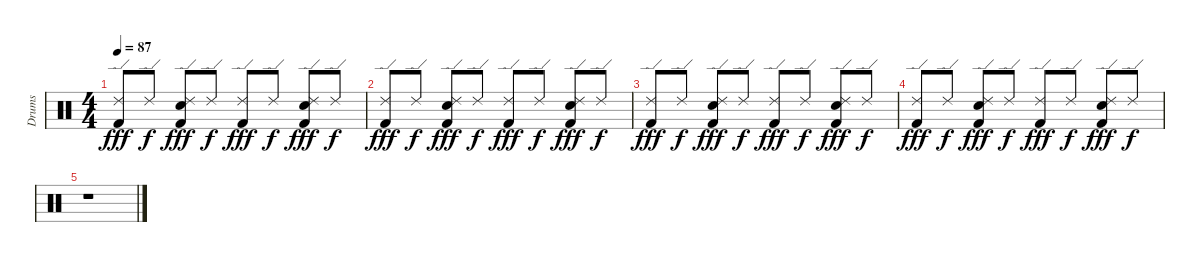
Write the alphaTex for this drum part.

\track ("Drums" "Drums") {instrument percussion}
\staff {score}
\articulation defaults
\ts (4 4)
\tempo 87
\clef neutral
\ks c
("Kick (hit) 2" "Ride (edge) 2").8{dy fff} "Ride (edge) 2".8{dy f volume 3} ("Electric Snare (hit)" "Kick (hit) 2" "Ride (edge) 2").8{dy fff volume 3} "Ride (edge) 2".8{dy f volume 3} ("Kick (hit) 2" "Ride (edge) 2").8{dy fff} "Ride (edge) 2".8{dy f volume 3} ("Electric Snare (hit)" "Kick (hit) 2" "Ride (edge) 2").8{dy fff volume 3} "Ride (edge) 2".8{dy f volume 2} |
("Kick (hit) 2" "Ride (edge) 2").8{dy fff volume 2} "Ride (edge) 2".8{dy f} ("Electric Snare (hit)" "Kick (hit) 2" "Ride (edge) 2").8{dy fff volume 2} "Ride (edge) 2".8{dy f volume 2} ("Kick (hit) 2" "Ride (edge) 2").8{dy fff volume 2} "Ride (edge) 2".8{dy f volume 2} ("Electric Snare (hit)" "Kick (hit) 2" "Ride (edge) 2").8{dy fff} "Ride (edge) 2".8{dy f volume 2} |
("Kick (hit) 2" "Ride (edge) 2").8{dy fff volume 2} "Ride (edge) 2".8{dy f volume 2} ("Electric Snare (hit)" "Kick (hit) 2" "Ride (edge) 2").8{dy fff} "Ride (edge) 2".8{dy f volume 1} ("Kick (hit) 2" "Ride (edge) 2").8{dy fff volume 1} "Ride (edge) 2".8{dy f volume 1} ("Electric Snare (hit)" "Kick (hit) 2" "Ride (edge) 2").8{dy fff volume 1} "Ride (edge) 2".8{dy f} |
("Kick (hit) 2" "Ride (edge) 2").8{dy fff volume 1} "Ride (edge) 2".8{dy f volume 1} ("Electric Snare (hit)" "Kick (hit) 2" "Ride (edge) 2").8{dy fff volume 1} "Ride (edge) 2".8{dy f volume 0} ("Kick (hit) 2" "Ride (edge) 2").8{dy fff} "Ride (edge) 2".8{dy f volume 0} ("Electric Snare (hit)" "Kick (hit) 2" "Ride (edge) 2").8{dy fff volume 0} "Ride (edge) 2".8{dy f volume 0} |
r.1
